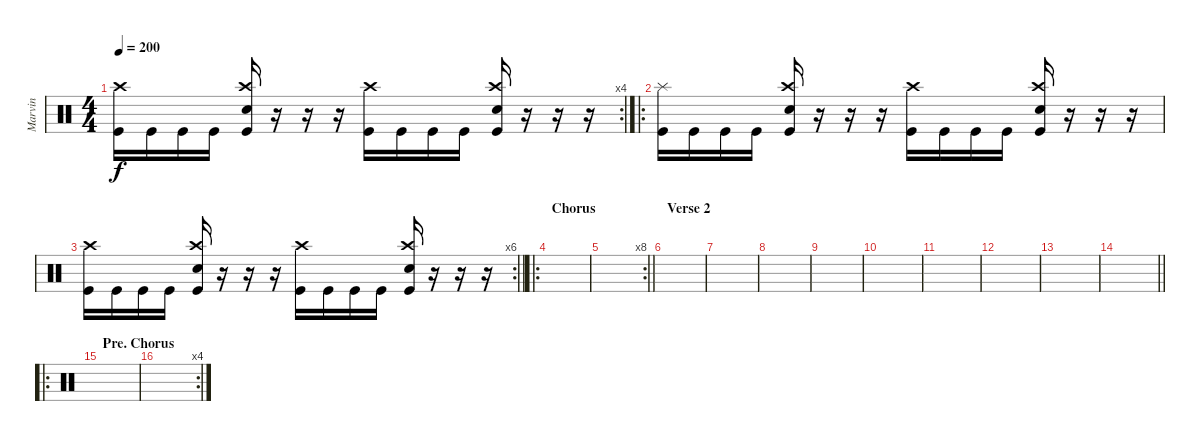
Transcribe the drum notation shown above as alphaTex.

\track ("Marvin" "Marvin") {solo instrument percussion}
\staff {score}
\articulation defaults
\rc 4
\ts (4 4)
\tempo 200
\clef neutral
\ks c
("Kick (hit)" "Crash high (hit)").16{dy f} "Kick (hit)".16 "Kick (hit)".16 "Kick (hit)".16 ("Kick (hit)" "Electric Snare (hit)" "Crash high (hit)").16 r.16 r.16 r.16 ("Kick (hit)" "Crash high (hit)").16 "Kick (hit)".16 "Kick (hit)".16 "Kick (hit)".16 ("Kick (hit)" "Crash high (hit)" "Electric Snare (hit)").16 r.16 r.16 r.16 |
\ro
("Kick (hit)" "Splash (hit)").16 "Kick (hit)".16 "Kick (hit)".16 "Kick (hit)".16 ("Kick (hit)" "Electric Snare (hit)" "Crash high (hit)").16 r.16 r.16 r.16 ("Kick (hit)" "Crash high (hit)").16 "Kick (hit)".16 "Kick (hit)".16 "Kick (hit)".16 ("Kick (hit)" "Crash high (hit)" "Electric Snare (hit)").16 r.16 r.16 r.16 |
\rc 6
\barLineRight lightlight
("Kick (hit)" "Crash high (hit)").16 "Kick (hit)".16 "Kick (hit)".16 "Kick (hit)".16 ("Kick (hit)" "Electric Snare (hit)" "Crash high (hit)").16 r.16 r.16 r.16 ("Kick (hit)" "Crash high (hit)").16 "Kick (hit)".16 "Kick (hit)".16 "Kick (hit)".16 ("Kick (hit)" "Crash high (hit)" "Electric Snare (hit)").16 r.16 r.16 r.16 |
\ro
\section ("" "Chorus")
|
\rc 8
\barLineRight lightlight
|
\section ("" "Verse 2")
|
|
|
|
|
|
|
|
\barLineRight lightlight
|
\ro
\section ("" "Pre. Chorus")
|
\rc 4
